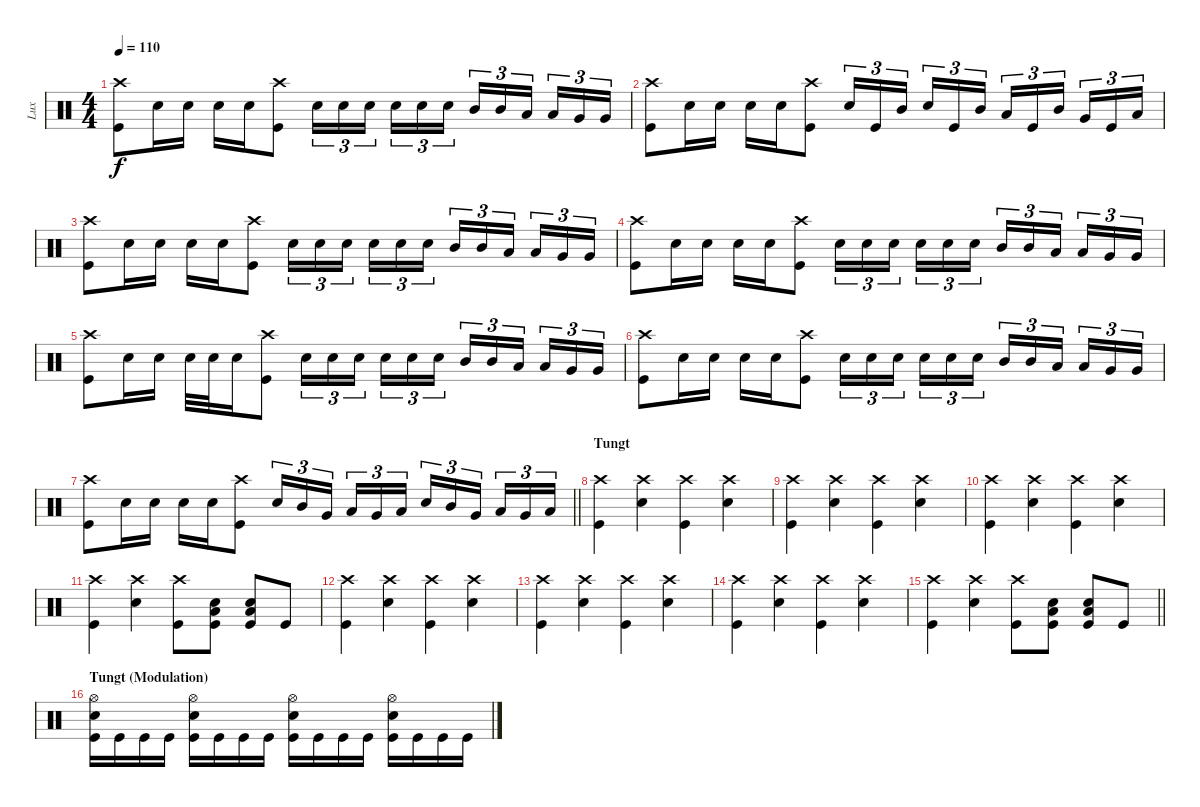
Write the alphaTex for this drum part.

\track ("Lux" "Lux") {mute instrument percussion}
\staff {score}
\articulation defaults
\ts (4 4)
\tempo 110
\clef neutral
\ks c
("Crash high (hit)" "Kick (hit)").8{dy f} "Snare (hit) 2".16 "Snare (hit) 2".16 "Snare (hit) 2".16 "Snare (hit) 2".16 ("Crash high (hit)" "Kick (hit)").8 "Snare (hit) 2".16{tu (3 2)} "Snare (hit) 2".16{tu (3 2)} "Snare (hit) 2".16{tu (3 2) beam splitsecondary} "Snare (hit) 2".16{tu (3 2)} "Snare (hit) 2".16{tu (3 2)} "Snare (hit) 2".16{tu (3 2)} "Mid Tom (hit)".16{tu (3 2)} "Mid Tom (hit)".16{tu (3 2)} "Low Tom (hit)".16{tu (3 2) beam splitsecondary} "Low Tom (hit)".16{tu (3 2)} "Very Low Tom (hit)".16{tu (3 2)} "Very Low Tom (hit)".16{tu (3 2)} |
("Crash high (hit)" "Kick (hit)").8 "Snare (hit) 2".16 "Snare (hit) 2".16 "Snare (hit) 2".16 "Snare (hit) 2".16 ("Crash high (hit)" "Kick (hit)").8 "Snare (hit) 2".16{tu (3 2)} "Kick (hit)".16{tu (3 2)} "Mid Tom (hit)".16{tu (3 2) beam splitsecondary} "Snare (hit) 2".16{tu (3 2)} "Kick (hit)".16{tu (3 2)} "Mid Tom (hit)".16{tu (3 2)} "Low Tom (hit)".16{tu (3 2)} "Kick (hit)".16{tu (3 2)} "Mid Tom (hit)".16{tu (3 2) beam splitsecondary} "Very Low Tom (hit)".16{tu (3 2)} "Kick (hit)".16{tu (3 2)} "Low Tom (hit)".16{tu (3 2)} |
("Crash high (hit)" "Kick (hit)").8 "Snare (hit) 2".16 "Snare (hit) 2".16 "Snare (hit) 2".16 "Snare (hit) 2".16 ("Crash high (hit)" "Kick (hit)").8 "Snare (hit) 2".16{tu (3 2)} "Snare (hit) 2".16{tu (3 2)} "Snare (hit) 2".16{tu (3 2) beam splitsecondary} "Snare (hit) 2".16{tu (3 2)} "Snare (hit) 2".16{tu (3 2)} "Snare (hit) 2".16{tu (3 2)} "Mid Tom (hit)".16{tu (3 2)} "Mid Tom (hit)".16{tu (3 2)} "Low Tom (hit)".16{tu (3 2) beam splitsecondary} "Low Tom (hit)".16{tu (3 2)} "Very Low Tom (hit)".16{tu (3 2)} "Very Low Tom (hit)".16{tu (3 2)} |
("Crash high (hit)" "Kick (hit)").8 "Snare (hit) 2".16 "Snare (hit) 2".16 "Snare (hit) 2".16 "Snare (hit) 2".16 ("Crash high (hit)" "Kick (hit)").8 "Snare (hit) 2".16{tu (3 2)} "Snare (hit) 2".16{tu (3 2)} "Snare (hit) 2".16{tu (3 2) beam splitsecondary} "Snare (hit) 2".16{tu (3 2)} "Snare (hit) 2".16{tu (3 2)} "Snare (hit) 2".16{tu (3 2)} "Mid Tom (hit)".16{tu (3 2)} "Mid Tom (hit)".16{tu (3 2)} "Low Tom (hit)".16{tu (3 2) beam splitsecondary} "Low Tom (hit)".16{tu (3 2)} "Very Low Tom (hit)".16{tu (3 2)} "Very Low Tom (hit)".16{tu (3 2)} |
("Crash high (hit)" "Kick (hit)").8 "Snare (hit) 2".16 "Snare (hit) 2".16 "Snare (hit) 2".32 "Snare (hit) 2".32 "Snare (hit) 2".16 ("Crash high (hit)" "Kick (hit)").8 "Snare (hit) 2".16{tu (3 2)} "Snare (hit) 2".16{tu (3 2)} "Snare (hit) 2".16{tu (3 2) beam splitsecondary} "Snare (hit) 2".16{tu (3 2)} "Snare (hit) 2".16{tu (3 2)} "Snare (hit) 2".16{tu (3 2)} "Mid Tom (hit)".16{tu (3 2)} "Mid Tom (hit)".16{tu (3 2)} "Low Tom (hit)".16{tu (3 2) beam splitsecondary} "Low Tom (hit)".16{tu (3 2)} "Very Low Tom (hit)".16{tu (3 2)} "Very Low Tom (hit)".16{tu (3 2)} |
("Crash high (hit)" "Kick (hit)").8 "Snare (hit) 2".16 "Snare (hit) 2".16 "Snare (hit) 2".16 "Snare (hit) 2".16 ("Crash high (hit)" "Kick (hit)").8 "Snare (hit) 2".16{tu (3 2)} "Snare (hit) 2".16{tu (3 2)} "Snare (hit) 2".16{tu (3 2) beam splitsecondary} "Snare (hit) 2".16{tu (3 2)} "Snare (hit) 2".16{tu (3 2)} "Snare (hit) 2".16{tu (3 2)} "Mid Tom (hit)".16{tu (3 2)} "Mid Tom (hit)".16{tu (3 2)} "Low Tom (hit)".16{tu (3 2) beam splitsecondary} "Low Tom (hit)".16{tu (3 2)} "Very Low Tom (hit)".16{tu (3 2)} "Very Low Tom (hit)".16{tu (3 2)} |
\barLineRight lightlight
("Crash high (hit)" "Kick (hit)").8 "Snare (hit) 2".16 "Snare (hit) 2".16 "Snare (hit) 2".16 "Snare (hit) 2".16 ("Crash high (hit)" "Kick (hit)").8 "Snare (hit) 2".16{tu (3 2)} "Mid Tom (hit)".16{tu (3 2)} "Very Low Tom (hit)".16{tu (3 2) beam splitsecondary} "Low Tom (hit)".16{tu (3 2)} "Very Low Tom (hit)".16{tu (3 2)} "Low Tom (hit)".16{tu (3 2)} "Snare (hit) 2".16{tu (3 2)} "Mid Tom (hit)".16{tu (3 2)} "Very Low Tom (hit)".16{tu (3 2) beam splitsecondary} "Low Tom (hit)".16{tu (3 2)} "Very Low Tom (hit)".16{tu (3 2)} "Low Tom (hit)".16{tu (3 2)} |
\section ("" "Tungt")
("Crash high (hit)" "Kick (hit)").4 ("Crash high (hit)" "Snare (hit) 2").4 ("Crash high (hit)" "Kick (hit)").4 ("Crash high (hit)" "Snare (hit) 2").4 |
("Crash high (hit)" "Kick (hit)").4 ("Crash high (hit)" "Snare (hit) 2").4 ("Crash high (hit)" "Kick (hit)").4 ("Crash high (hit)" "Snare (hit) 2").4 |
("Crash high (hit)" "Kick (hit)").4 ("Crash high (hit)" "Snare (hit) 2").4 ("Crash high (hit)" "Kick (hit)").4 ("Crash high (hit)" "Snare (hit) 2").4 |
("Crash high (hit)" "Kick (hit)").4 ("Crash high (hit)" "Snare (hit) 2").4 ("Crash high (hit)" "Kick (hit)").8 ("Snare (hit) 2" "Low Tom (hit)" "Kick (hit)").8 ("Snare (hit) 2" "Low Tom (hit)" "Kick (hit)").8 "Kick (hit)".8 |
("Crash high (hit)" "Kick (hit)").4 ("Crash high (hit)" "Snare (hit) 2").4 ("Crash high (hit)" "Kick (hit)").4 ("Crash high (hit)" "Snare (hit) 2").4 |
("Crash high (hit)" "Kick (hit)").4 ("Crash high (hit)" "Snare (hit) 2").4 ("Crash high (hit)" "Kick (hit)").4 ("Crash high (hit)" "Snare (hit) 2").4 |
("Crash high (hit)" "Kick (hit)").4 ("Crash high (hit)" "Snare (hit) 2").4 ("Crash high (hit)" "Kick (hit)").4 ("Crash high (hit)" "Snare (hit) 2").4 |
\barLineRight lightlight
("Crash high (hit)" "Kick (hit)").4 ("Crash high (hit)" "Snare (hit) 2").4 ("Crash high (hit)" "Kick (hit)").8 ("Snare (hit) 2" "Low Tom (hit)" "Kick (hit)").8 ("Snare (hit) 2" "Low Tom (hit)" "Kick (hit)").8 "Kick (hit)".8 |
\section ("" "Tungt (Modulation)")
("Hi-Hat (open)" "Snare (hit) 2" "Kick (hit)").16 "Kick (hit)".16 "Kick (hit)".16 "Kick (hit)".16 ("Hi-Hat (open)" "Snare (hit) 2" "Kick (hit)").16 "Kick (hit)".16 "Kick (hit)".16 "Kick (hit)".16 ("Hi-Hat (open)" "Snare (hit) 2" "Kick (hit)").16 "Kick (hit)".16 "Kick (hit)".16 "Kick (hit)".16 ("Hi-Hat (open)" "Snare (hit) 2" "Kick (hit)").16 "Kick (hit)".16 "Kick (hit)".16 "Kick (hit)".16
